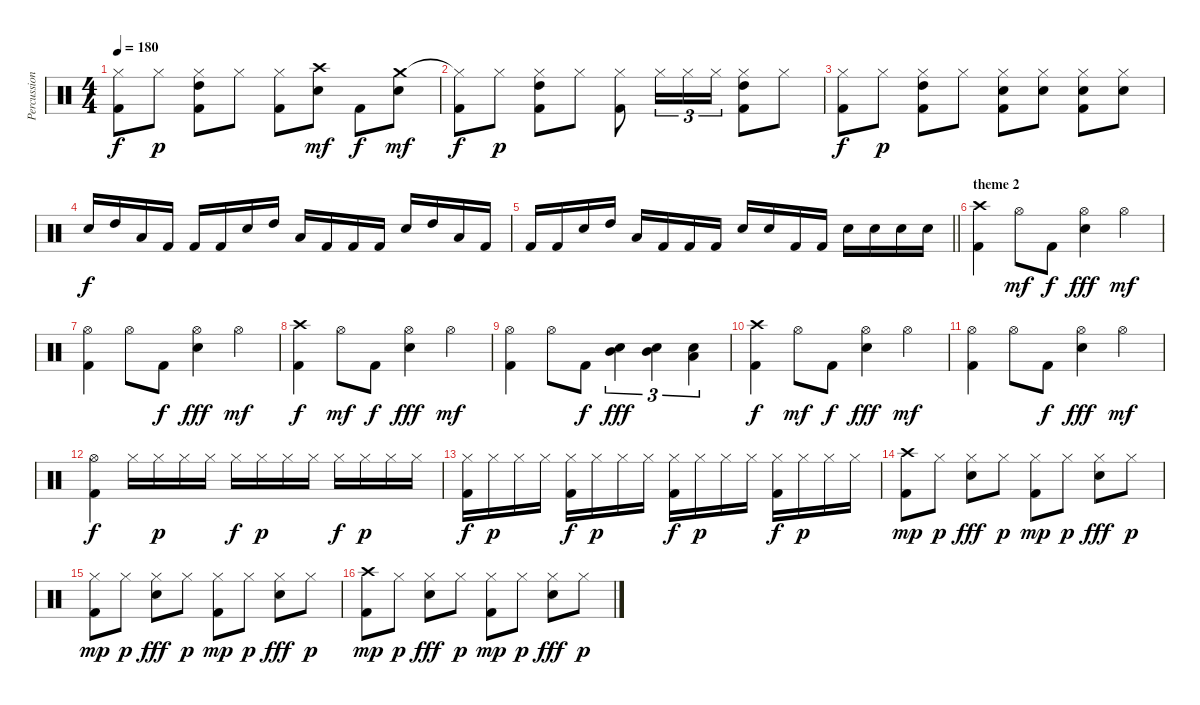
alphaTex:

\track ("Percussions" "Percussion") {instrument percussion}
\staff {score}
\articulation defaults
\ts (4 4)
\tempo 180
\clef neutral
\ks c
("Hi-Hat (closed)" "Kick (hit) 2").8{dy f} "Hi-Hat (closed)".8{dy p} ("Hi-Hat (closed)" "High Tom (hit)" "Kick (hit) 2").8 "Hi-Hat (closed)".8 ("Hi-Hat (closed)" "Kick (hit) 2").8 ("Crash high (hit)" "Electric Snare (hit)").8{dy mf} "Kick (hit) 2".8{dy f} ("Crash medium (hit)" "Electric Snare (hit)").8{dy mf} |
("Hi-Hat (closed)"{t} "Kick (hit) 2").8{dy f} "Hi-Hat (closed)".8{dy p} ("Hi-Hat (closed)" "High Tom (hit)" "Kick (hit) 2").8 "Hi-Hat (closed)".8 ("Hi-Hat (closed)" "Kick (hit) 2").8 "Hi-Hat (closed)".16{tu (3 2)} "Hi-Hat (closed)".16{tu (3 2)} "Hi-Hat (closed)".16{tu (3 2)} ("Hi-Hat (closed)" "High Tom (hit)" "Kick (hit) 2").8 "Hi-Hat (closed)".8 |
("Hi-Hat (closed)" "Kick (hit) 2").8{dy f} "Hi-Hat (closed)".8{dy p} ("Hi-Hat (closed)" "High Tom (hit)" "Kick (hit) 2").8 "Hi-Hat (closed)".8 ("Hi-Hat (closed)" "Electric Snare (hit)" "Kick (hit) 2").8 ("Hi-Hat (closed)" "Electric Snare (hit)").8 ("Hi-Hat (closed)" "Electric Snare (hit)" "Kick (hit) 2").8 ("Hi-Hat (closed)" "Electric Snare (hit)").8 |
"Electric Snare (hit)".16{dy f} "High Tom (hit)".16 "Low Tom (hit)".16 "Kick (hit) 2".16 "Kick (hit) 2".16 "Kick (hit) 2".16 "Electric Snare (hit)".16 "High Tom (hit)".16 "Low Tom (hit)".16 "Kick (hit) 2".16 "Kick (hit) 2".16 "Kick (hit) 2".16 "Electric Snare (hit)".16 "High Tom (hit)".16 "Low Tom (hit)".16 "Kick (hit) 2".16 |
\barLineRight lightlight "Kick (hit) 2".16 "Kick (hit) 2".16 "Electric Snare (hit)".16 "High Tom (hit)".16 "Low Tom (hit)".16 "Kick (hit) 2".16 "Kick (hit) 2".16 "Kick (hit) 2".16 "Electric Snare (hit)".16 "Electric Snare (hit)".16 "Kick (hit) 2".16 "Kick (hit) 2".16 "Electric Snare (hit)".16 "Electric Snare (hit)".16 "Electric Snare (hit)".16 "Electric Snare (hit)".16
|
\section ("" "theme 2")
("Crash high (hit)" "Kick (hit) 2").4 "Hi-Hat (open)".8{dy mf} "Kick (hit) 2".8{dy f} ("Hi-Hat (open)" "Electric Snare (hit)").4{dy fff} "Hi-Hat (open)".4{dy mf} |
("Hi-Hat (open)" "Kick (hit) 2").4 "Hi-Hat (open)".8 "Kick (hit) 2".8{dy f} ("Hi-Hat (open)" "Electric Snare (hit)").4{dy fff} "Hi-Hat (open)".4{dy mf} |
("Crash high (hit)" "Kick (hit) 2").4{dy f} "Hi-Hat (open)".8{dy mf} "Kick (hit) 2".8{dy f} ("Hi-Hat (open)" "Electric Snare (hit)").4{dy fff} "Hi-Hat (open)".4{dy mf} |
("Hi-Hat (open)" "Kick (hit) 2").4 "Hi-Hat (open)".8 "Kick (hit) 2".8{dy f} ("Mid Tom (hit)" "Electric Snare (hit)").4{tu (3 2) dy fff} ("Mid Tom (hit)" "Electric Snare (hit)").4{tu (3 2)} ("Low Tom (hit)" "Electric Snare (hit)").4{tu (3 2)} |
("Crash high (hit)" "Kick (hit) 2").4{dy f} "Hi-Hat (open)".8{dy mf} "Kick (hit) 2".8{dy f} ("Hi-Hat (open)" "Electric Snare (hit)").4{dy fff} "Hi-Hat (open)".4{dy mf} |
("Hi-Hat (open)" "Kick (hit) 2").4 "Hi-Hat (open)".8 "Kick (hit) 2".8{dy f} ("Hi-Hat (open)" "Electric Snare (hit)").4{dy fff} "Hi-Hat (open)".4{dy mf} |
("Hi-Hat (open)" "Kick (hit) 2").4{dy f} "Hi-Hat (closed)".16 "Hi-Hat (closed)".16{dy p} "Hi-Hat (closed)".16 "Hi-Hat (closed)".16 "Hi-Hat (closed)".16{dy f} "Hi-Hat (closed)".16{dy p} "Hi-Hat (closed)".16 "Hi-Hat (closed)".16 "Hi-Hat (closed)".16{dy f} "Hi-Hat (closed)".16{dy p} "Hi-Hat (closed)".16 "Hi-Hat (closed)".16 |
("Hi-Hat (closed)" "Kick (hit) 2").16{dy f} "Hi-Hat (closed)".16{dy p} "Hi-Hat (closed)".16 "Hi-Hat (closed)".16 ("Hi-Hat (closed)" "Kick (hit) 2").16{dy f} "Hi-Hat (closed)".16{dy p} "Hi-Hat (closed)".16 "Hi-Hat (closed)".16 ("Hi-Hat (closed)" "Kick (hit) 2").16{dy f} "Hi-Hat (closed)".16{dy p} "Hi-Hat (closed)".16 "Hi-Hat (closed)".16 ("Hi-Hat (closed)" "Kick (hit) 2").16{dy f} "Hi-Hat (closed)".16{dy p} "Hi-Hat (closed)".16 "Hi-Hat (closed)".16 |
("Crash high (hit)" "Kick (hit) 2").8{dy mp} "Hi-Hat (closed)".8{dy p} ("Hi-Hat (closed)" "Electric Snare (hit)").8{dy fff} "Hi-Hat (closed)".8{dy p} ("Hi-Hat (closed)" "Kick (hit) 2").8{dy mp} "Hi-Hat (closed)".8{dy p} ("Hi-Hat (closed)" "Electric Snare (hit)").8{dy fff} "Hi-Hat (closed)".8{dy p} |
("Hi-Hat (closed)" "Kick (hit) 2").8{dy mp} "Hi-Hat (closed)".8{dy p} ("Hi-Hat (closed)" "Electric Snare (hit)").8{dy fff} "Hi-Hat (closed)".8{dy p} ("Hi-Hat (closed)" "Kick (hit) 2").8{dy mp} "Hi-Hat (closed)".8{dy p} ("Hi-Hat (closed)" "Electric Snare (hit)").8{dy fff} "Hi-Hat (closed)".8{dy p} |
("Crash high (hit)" "Kick (hit) 2").8{dy mp} "Hi-Hat (closed)".8{dy p} ("Hi-Hat (closed)" "Electric Snare (hit)").8{dy fff} "Hi-Hat (closed)".8{dy p} ("Hi-Hat (closed)" "Kick (hit) 2").8{dy mp} "Hi-Hat (closed)".8{dy p} ("Hi-Hat (closed)" "Electric Snare (hit)").8{dy fff} "Hi-Hat (closed)".8{dy p}
